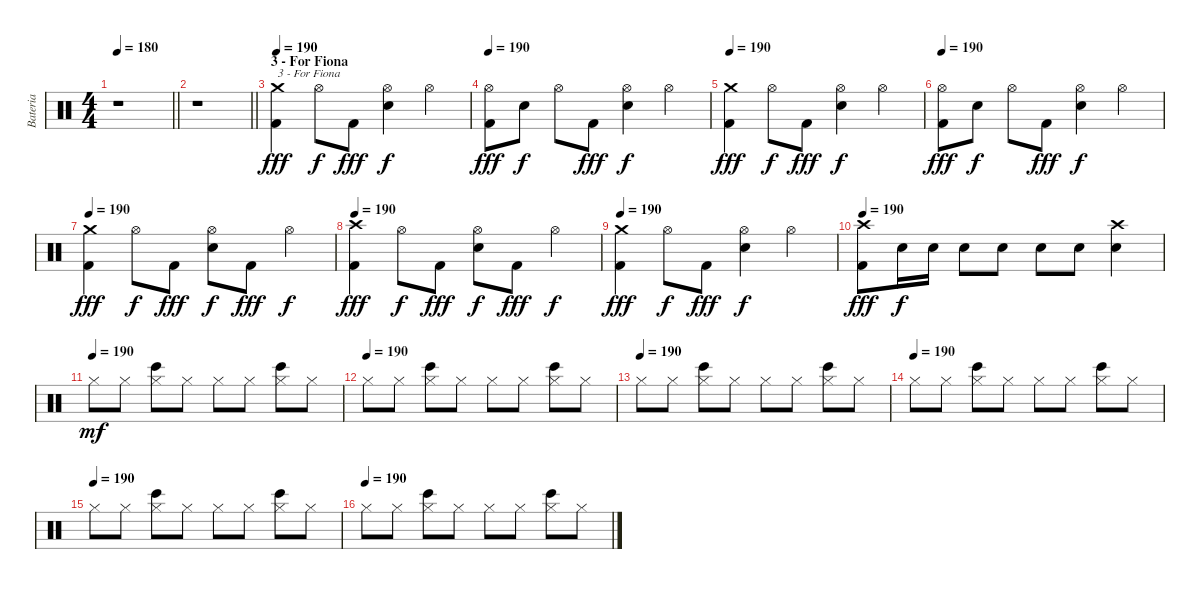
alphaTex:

\track ("Bateria" "Bateria") {instrument percussion}
\staff {score}
\articulation defaults
\ts (4 4)
\tempo 180
\clef neutral
\barLineRight lightlight
\ks c
r.1{dy fff} |
\barLineRight lightlight
r.1 |
\section ("" "3 - For Fiona")
\tempo 190
("Crash medium (hit)" "Kick (hit) 2").4{txt "3 - For Fiona"} "Hi-Hat (open)".8{dy f} "Kick (hit) 2".8{dy fff} ("Hi-Hat (open)" "Electric Snare (hit)").4{dy f} "Hi-Hat (open)".4 |
\tempo 190
("Hi-Hat (open)" "Kick (hit) 2").8{dy fff} "Electric Snare (hit)".8{dy f} "Hi-Hat (open)".8 "Kick (hit) 2".8{dy fff} ("Hi-Hat (open)" "Electric Snare (hit)").4{dy f} "Hi-Hat (open)".4 |
\tempo 190
("Crash medium (hit)" "Kick (hit) 2").4{dy fff} "Hi-Hat (open)".8{dy f} "Kick (hit) 2".8{dy fff} ("Hi-Hat (open)" "Electric Snare (hit)").4{dy f} "Hi-Hat (open)".4 |
\tempo 190
("Hi-Hat (open)" "Kick (hit) 2").8{dy fff} "Electric Snare (hit)".8{dy f} "Hi-Hat (open)".8 "Kick (hit) 2".8{dy fff} ("Hi-Hat (open)" "Electric Snare (hit)").4{dy f} "Hi-Hat (open)".4 |
\tempo 190
("Crash medium (hit)" "Kick (hit) 2").4{dy fff} "Hi-Hat (open)".8{dy f} "Kick (hit) 2".8{dy fff} ("Hi-Hat (open)" "Electric Snare (hit)").8{dy f} "Kick (hit) 2".8{dy fff} "Hi-Hat (open)".4{dy f} |
\tempo 190
("Crash high (hit)" "Kick (hit) 2").4{dy fff} "Hi-Hat (open)".8{dy f} "Kick (hit) 2".8{dy fff} ("Hi-Hat (open)" "Electric Snare (hit)").8{dy f} "Kick (hit) 2".8{dy fff} "Hi-Hat (open)".4{dy f} |
\tempo 190
("Crash medium (hit)" "Kick (hit) 2").4{dy fff} "Hi-Hat (open)".8{dy f} "Kick (hit) 2".8{dy fff} ("Hi-Hat (open)" "Electric Snare (hit)").4{dy f} "Hi-Hat (open)".4 |
\tempo 190
("Crash high (hit)" "Kick (hit) 2").8{dy fff} "Electric Snare (hit)".16{dy f} "Electric Snare (hit)".16 "Electric Snare (hit)".8 "Electric Snare (hit)".8 "Electric Snare (hit)".8 "Electric Snare (hit)".8 ("Crash high (hit)" "Electric Snare (hit)").4 |
\tempo (190)
"Hi-Hat (closed)".8{dy mf} "Hi-Hat (closed)".8 ("Hi-Hat (closed)" "Bongo High (hit)").8 "Hi-Hat (closed)".8 "Hi-Hat (closed)".8 "Hi-Hat (closed)".8 ("Hi-Hat (closed)" "Bongo High (hit)").8 "Hi-Hat (closed)".8 |
\tempo (190)
"Hi-Hat (closed)".8 "Hi-Hat (closed)".8 ("Hi-Hat (closed)" "Bongo High (hit)").8 "Hi-Hat (closed)".8 "Hi-Hat (closed)".8 "Hi-Hat (closed)".8 ("Hi-Hat (closed)" "Bongo High (hit)").8 "Hi-Hat (closed)".8 |
\tempo (190)
"Hi-Hat (closed)".8 "Hi-Hat (closed)".8 ("Hi-Hat (closed)" "Bongo High (hit)").8 "Hi-Hat (closed)".8 "Hi-Hat (closed)".8 "Hi-Hat (closed)".8 ("Hi-Hat (closed)" "Bongo High (hit)").8 "Hi-Hat (closed)".8 |
\tempo (190)
"Hi-Hat (closed)".8 "Hi-Hat (closed)".8 ("Hi-Hat (closed)" "Bongo High (hit)").8 "Hi-Hat (closed)".8 "Hi-Hat (closed)".8 "Hi-Hat (closed)".8 ("Hi-Hat (closed)" "Bongo High (hit)").8 "Hi-Hat (closed)".8 |
\tempo (190)
"Hi-Hat (closed)".8 "Hi-Hat (closed)".8 ("Hi-Hat (closed)" "Bongo High (hit)").8 "Hi-Hat (closed)".8 "Hi-Hat (closed)".8 "Hi-Hat (closed)".8 ("Hi-Hat (closed)" "Bongo High (hit)").8 "Hi-Hat (closed)".8 |
\tempo (190)
"Hi-Hat (closed)".8 "Hi-Hat (closed)".8 ("Hi-Hat (closed)" "Bongo High (hit)").8 "Hi-Hat (closed)".8 "Hi-Hat (closed)".8 "Hi-Hat (closed)".8 ("Hi-Hat (closed)" "Bongo High (hit)").8 "Hi-Hat (closed)".8
